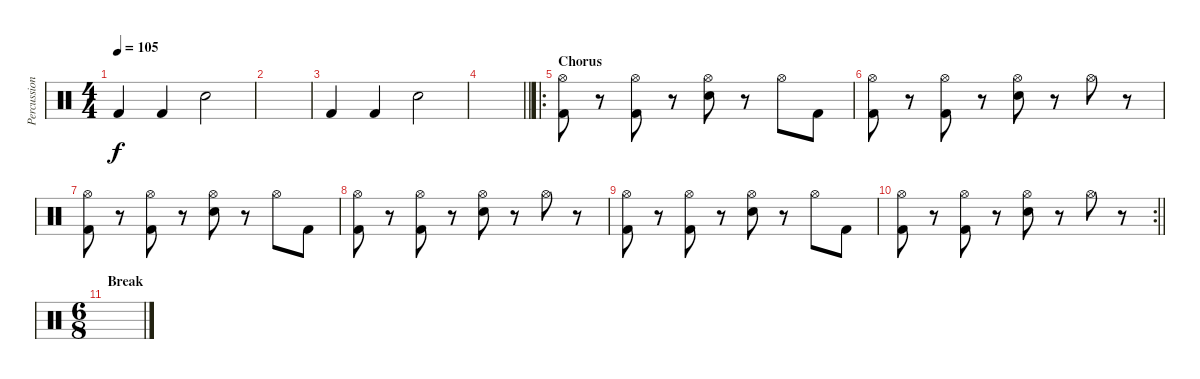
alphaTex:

\track ("Percussion" "Percussion") {instrument percussion}
\staff {score}
\articulation defaults
\ts (4 4)
\tempo 105
\clef neutral
\ks c "Kick (hit) 2".4{dy f} "Kick (hit) 2".4 "Electric Snare (hit)".2
|
|
"Kick (hit) 2".4 "Kick (hit) 2".4 "Electric Snare (hit)".2 |
\barLineRight lightlight
|
\ro
\section ("" "Chorus")
("Hi-Hat (open)" "Kick (hit) 2").8 r.8 ("Hi-Hat (open)" "Kick (hit) 2").8 r.8 ("Hi-Hat (open)" "Electric Snare (hit)").8 r.8 "Hi-Hat (open)".8 "Kick (hit) 2".8 |
("Hi-Hat (open)" "Kick (hit) 2").8 r.8 ("Hi-Hat (open)" "Kick (hit) 2").8 r.8 ("Hi-Hat (open)" "Electric Snare (hit)").8 r.8 "Hi-Hat (open)".8 r.8 |
("Hi-Hat (open)" "Kick (hit) 2").8 r.8 ("Hi-Hat (open)" "Kick (hit) 2").8 r.8 ("Hi-Hat (open)" "Electric Snare (hit)").8 r.8 "Hi-Hat (open)".8 "Kick (hit) 2".8 |
("Hi-Hat (open)" "Kick (hit) 2").8 r.8 ("Hi-Hat (open)" "Kick (hit) 2").8 r.8 ("Hi-Hat (open)" "Electric Snare (hit)").8 r.8 "Hi-Hat (open)".8 r.8 |
("Hi-Hat (open)" "Kick (hit) 2").8 r.8 ("Hi-Hat (open)" "Kick (hit) 2").8 r.8 ("Hi-Hat (open)" "Electric Snare (hit)").8 r.8 "Hi-Hat (open)".8 "Kick (hit) 2".8 |
\rc 2
\barLineRight lightlight
("Hi-Hat (open)" "Kick (hit) 2").8 r.8 ("Hi-Hat (open)" "Kick (hit) 2").8 r.8 ("Hi-Hat (open)" "Electric Snare (hit)").8 r.8 "Hi-Hat (open)".8 r.8 |
\ts (6 8)
\section ("" "Break")
